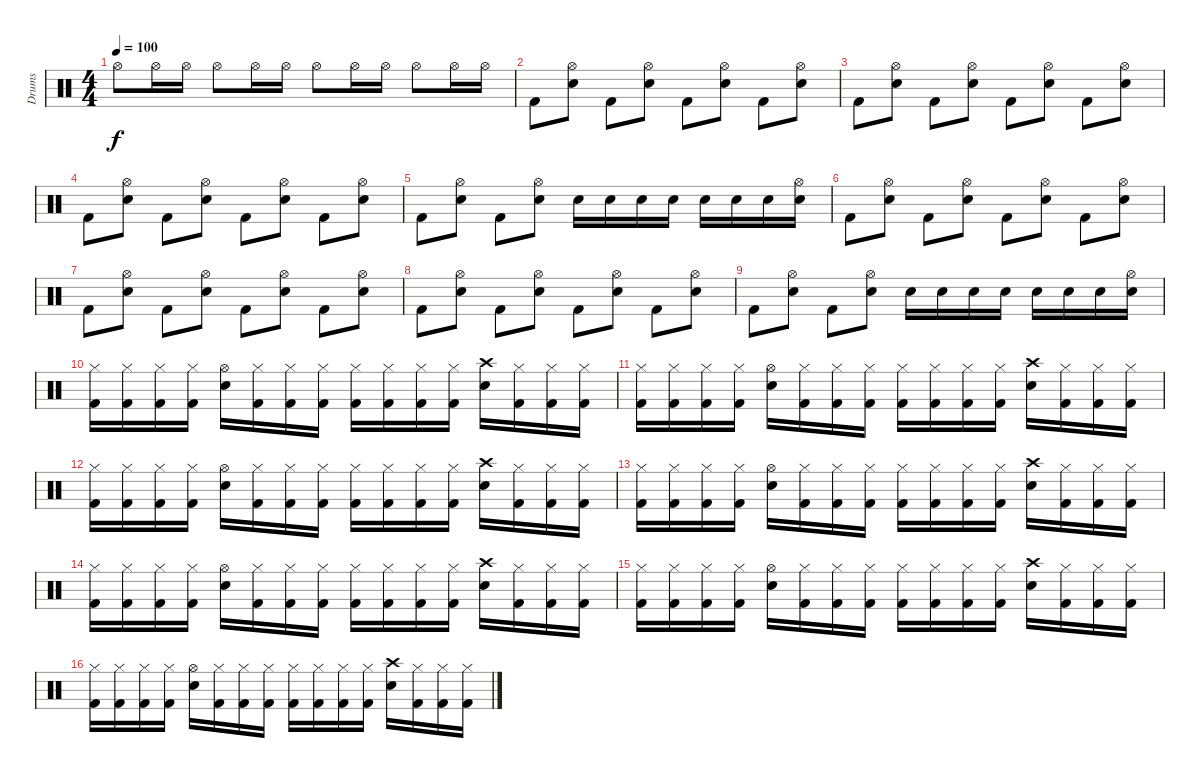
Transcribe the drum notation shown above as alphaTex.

\track ("Drums" "Drums") {instrument percussion}
\staff {score}
\articulation defaults
\ts (4 4)
\tempo 100
\clef neutral
\ks c "Hi-Hat (open)".8{dy f} "Hi-Hat (open)".16 "Hi-Hat (open)".16 "Hi-Hat (open)".8 "Hi-Hat (open)".16 "Hi-Hat (open)".16 "Hi-Hat (open)".8 "Hi-Hat (open)".16 "Hi-Hat (open)".16 "Hi-Hat (open)".8 "Hi-Hat (open)".16 "Hi-Hat (open)".16
|
"Kick (hit) 2".8 ("Electric Snare (hit)" "Hi-Hat (open)").8 "Kick (hit) 2".8 ("Electric Snare (hit)" "Hi-Hat (open)").8 "Kick (hit) 2".8 ("Electric Snare (hit)" "Hi-Hat (open)").8 "Kick (hit) 2".8 ("Electric Snare (hit)" "Hi-Hat (open)").8 |
"Kick (hit) 2".8 ("Electric Snare (hit)" "Hi-Hat (open)").8 "Kick (hit) 2".8 ("Electric Snare (hit)" "Hi-Hat (open)").8 "Kick (hit) 2".8 ("Electric Snare (hit)" "Hi-Hat (open)").8 "Kick (hit) 2".8 ("Electric Snare (hit)" "Hi-Hat (open)").8 |
"Kick (hit) 2".8 ("Electric Snare (hit)" "Hi-Hat (open)").8 "Kick (hit) 2".8 ("Electric Snare (hit)" "Hi-Hat (open)").8 "Kick (hit) 2".8 ("Electric Snare (hit)" "Hi-Hat (open)").8 "Kick (hit) 2".8 ("Electric Snare (hit)" "Hi-Hat (open)").8 |
"Kick (hit) 2".8 ("Electric Snare (hit)" "Hi-Hat (open)").8 "Kick (hit) 2".8 ("Electric Snare (hit)" "Hi-Hat (open)").8 "Electric Snare (hit)".16 "Electric Snare (hit)".16 "Electric Snare (hit)".16 "Electric Snare (hit)".16 "Electric Snare (hit)".16 "Electric Snare (hit)".16 "Electric Snare (hit)".16 ("Electric Snare (hit)" "Hi-Hat (open)").16 |
"Kick (hit) 2".8 ("Electric Snare (hit)" "Hi-Hat (open)").8 "Kick (hit) 2".8 ("Electric Snare (hit)" "Hi-Hat (open)").8 "Kick (hit) 2".8 ("Electric Snare (hit)" "Hi-Hat (open)").8 "Kick (hit) 2".8 ("Electric Snare (hit)" "Hi-Hat (open)").8 |
"Kick (hit) 2".8 ("Electric Snare (hit)" "Hi-Hat (open)").8 "Kick (hit) 2".8 ("Electric Snare (hit)" "Hi-Hat (open)").8 "Kick (hit) 2".8 ("Electric Snare (hit)" "Hi-Hat (open)").8 "Kick (hit) 2".8 ("Electric Snare (hit)" "Hi-Hat (open)").8 |
"Kick (hit) 2".8 ("Electric Snare (hit)" "Hi-Hat (open)").8 "Kick (hit) 2".8 ("Electric Snare (hit)" "Hi-Hat (open)").8 "Kick (hit) 2".8 ("Electric Snare (hit)" "Hi-Hat (open)").8 "Kick (hit) 2".8 ("Electric Snare (hit)" "Hi-Hat (open)").8 |
"Kick (hit) 2".8 ("Electric Snare (hit)" "Hi-Hat (open)").8 "Kick (hit) 2".8 ("Electric Snare (hit)" "Hi-Hat (open)").8 "Electric Snare (hit)".16 "Electric Snare (hit)".16 "Electric Snare (hit)".16 "Electric Snare (hit)".16 "Electric Snare (hit)".16 "Electric Snare (hit)".16 "Electric Snare (hit)".16 ("Electric Snare (hit)" "Hi-Hat (open)").16 |
("Hi-Hat (closed)" "Kick (hit) 2").16 ("Hi-Hat (closed)" "Kick (hit) 2").16 ("Hi-Hat (closed)" "Kick (hit) 2").16 ("Hi-Hat (closed)" "Kick (hit) 2").16 ("Hi-Hat (open)" "Electric Snare (hit)").16 ("Hi-Hat (closed)" "Kick (hit) 2").16 ("Hi-Hat (closed)" "Kick (hit) 2").16 ("Hi-Hat (closed)" "Kick (hit) 2").16 ("Hi-Hat (closed)" "Kick (hit) 2").16 ("Hi-Hat (closed)" "Kick (hit) 2").16 ("Hi-Hat (closed)" "Kick (hit) 2").16 ("Hi-Hat (closed)" "Kick (hit) 2").16 ("Crash high (hit)" "Electric Snare (hit)").16 ("Hi-Hat (closed)" "Kick (hit) 2").16 ("Hi-Hat (closed)" "Kick (hit) 2").16 ("Hi-Hat (closed)" "Kick (hit) 2").16 |
("Hi-Hat (closed)" "Kick (hit) 2").16 ("Hi-Hat (closed)" "Kick (hit) 2").16 ("Hi-Hat (closed)" "Kick (hit) 2").16 ("Hi-Hat (closed)" "Kick (hit) 2").16 ("Hi-Hat (open)" "Electric Snare (hit)").16 ("Hi-Hat (closed)" "Kick (hit) 2").16 ("Hi-Hat (closed)" "Kick (hit) 2").16 ("Hi-Hat (closed)" "Kick (hit) 2").16 ("Hi-Hat (closed)" "Kick (hit) 2").16 ("Hi-Hat (closed)" "Kick (hit) 2").16 ("Hi-Hat (closed)" "Kick (hit) 2").16 ("Hi-Hat (closed)" "Kick (hit) 2").16 ("Crash high (hit)" "Electric Snare (hit)").16 ("Hi-Hat (closed)" "Kick (hit) 2").16 ("Hi-Hat (closed)" "Kick (hit) 2").16 ("Hi-Hat (closed)" "Kick (hit) 2").16 |
("Hi-Hat (closed)" "Kick (hit) 2").16 ("Hi-Hat (closed)" "Kick (hit) 2").16 ("Hi-Hat (closed)" "Kick (hit) 2").16 ("Hi-Hat (closed)" "Kick (hit) 2").16 ("Hi-Hat (open)" "Electric Snare (hit)").16 ("Hi-Hat (closed)" "Kick (hit) 2").16 ("Hi-Hat (closed)" "Kick (hit) 2").16 ("Hi-Hat (closed)" "Kick (hit) 2").16 ("Hi-Hat (closed)" "Kick (hit) 2").16 ("Hi-Hat (closed)" "Kick (hit) 2").16 ("Hi-Hat (closed)" "Kick (hit) 2").16 ("Hi-Hat (closed)" "Kick (hit) 2").16 ("Crash high (hit)" "Electric Snare (hit)").16 ("Hi-Hat (closed)" "Kick (hit) 2").16 ("Hi-Hat (closed)" "Kick (hit) 2").16 ("Hi-Hat (closed)" "Kick (hit) 2").16 |
("Hi-Hat (closed)" "Kick (hit) 2").16 ("Hi-Hat (closed)" "Kick (hit) 2").16 ("Hi-Hat (closed)" "Kick (hit) 2").16 ("Hi-Hat (closed)" "Kick (hit) 2").16 ("Hi-Hat (open)" "Electric Snare (hit)").16 ("Hi-Hat (closed)" "Kick (hit) 2").16 ("Hi-Hat (closed)" "Kick (hit) 2").16 ("Hi-Hat (closed)" "Kick (hit) 2").16 ("Hi-Hat (closed)" "Kick (hit) 2").16 ("Hi-Hat (closed)" "Kick (hit) 2").16 ("Hi-Hat (closed)" "Kick (hit) 2").16 ("Hi-Hat (closed)" "Kick (hit) 2").16 ("Crash high (hit)" "Electric Snare (hit)").16 ("Hi-Hat (closed)" "Kick (hit) 2").16 ("Hi-Hat (closed)" "Kick (hit) 2").16 ("Hi-Hat (closed)" "Kick (hit) 2").16 |
("Hi-Hat (closed)" "Kick (hit) 2").16 ("Hi-Hat (closed)" "Kick (hit) 2").16 ("Hi-Hat (closed)" "Kick (hit) 2").16 ("Hi-Hat (closed)" "Kick (hit) 2").16 ("Hi-Hat (open)" "Electric Snare (hit)").16 ("Hi-Hat (closed)" "Kick (hit) 2").16 ("Hi-Hat (closed)" "Kick (hit) 2").16 ("Hi-Hat (closed)" "Kick (hit) 2").16 ("Hi-Hat (closed)" "Kick (hit) 2").16 ("Hi-Hat (closed)" "Kick (hit) 2").16 ("Hi-Hat (closed)" "Kick (hit) 2").16 ("Hi-Hat (closed)" "Kick (hit) 2").16 ("Crash high (hit)" "Electric Snare (hit)").16 ("Hi-Hat (closed)" "Kick (hit) 2").16 ("Hi-Hat (closed)" "Kick (hit) 2").16 ("Hi-Hat (closed)" "Kick (hit) 2").16 |
("Hi-Hat (closed)" "Kick (hit) 2").16 ("Hi-Hat (closed)" "Kick (hit) 2").16 ("Hi-Hat (closed)" "Kick (hit) 2").16 ("Hi-Hat (closed)" "Kick (hit) 2").16 ("Hi-Hat (open)" "Electric Snare (hit)").16 ("Hi-Hat (closed)" "Kick (hit) 2").16 ("Hi-Hat (closed)" "Kick (hit) 2").16 ("Hi-Hat (closed)" "Kick (hit) 2").16 ("Hi-Hat (closed)" "Kick (hit) 2").16 ("Hi-Hat (closed)" "Kick (hit) 2").16 ("Hi-Hat (closed)" "Kick (hit) 2").16 ("Hi-Hat (closed)" "Kick (hit) 2").16 ("Crash high (hit)" "Electric Snare (hit)").16 ("Hi-Hat (closed)" "Kick (hit) 2").16 ("Hi-Hat (closed)" "Kick (hit) 2").16 ("Hi-Hat (closed)" "Kick (hit) 2").16 |
("Hi-Hat (closed)" "Kick (hit) 2").16 ("Hi-Hat (closed)" "Kick (hit) 2").16 ("Hi-Hat (closed)" "Kick (hit) 2").16 ("Hi-Hat (closed)" "Kick (hit) 2").16 ("Hi-Hat (open)" "Electric Snare (hit)").16 ("Hi-Hat (closed)" "Kick (hit) 2").16 ("Hi-Hat (closed)" "Kick (hit) 2").16 ("Hi-Hat (closed)" "Kick (hit) 2").16 ("Hi-Hat (closed)" "Kick (hit) 2").16 ("Hi-Hat (closed)" "Kick (hit) 2").16 ("Hi-Hat (closed)" "Kick (hit) 2").16 ("Hi-Hat (closed)" "Kick (hit) 2").16 ("Crash high (hit)" "Electric Snare (hit)").16 ("Hi-Hat (closed)" "Kick (hit) 2").16 ("Hi-Hat (closed)" "Kick (hit) 2").16 ("Hi-Hat (closed)" "Kick (hit) 2").16
